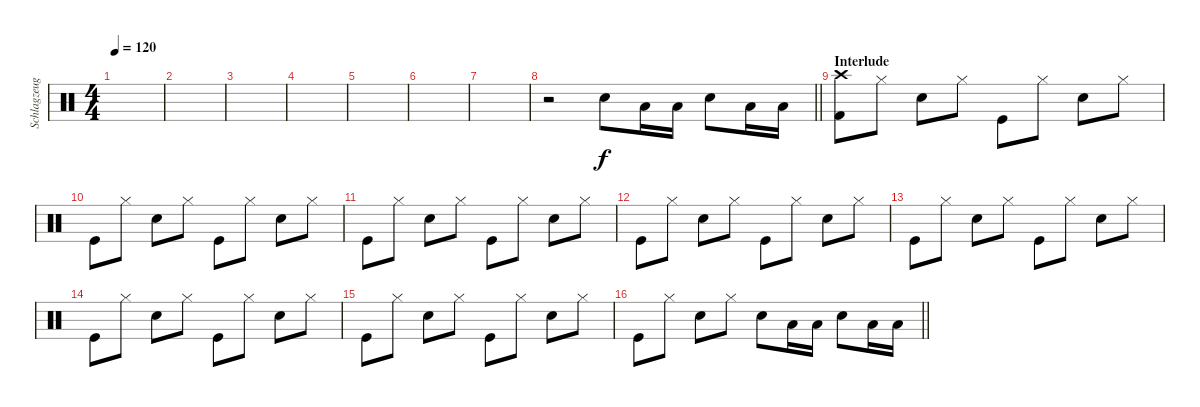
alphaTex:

\track ("Schlagzeug" "Schlagzeug") {instrument percussion}
\staff {score}
\articulation defaults
\ts (4 4)
\tempo 120
\clef neutral
\ks c
|
|
|
|
|
|
|
\barLineRight lightlight
r.2 "Snare (hit) 2".8 "Low Tom (hit)".16 "Low Tom (hit)".16 "Snare (hit) 2".8 "Low Tom (hit)".16 "Low Tom (hit)".16 |
\section ("" "Interlude")
("Crash high (hit)" "Kick (hit) 2").8 "Hi-Hat (closed)".8 "Snare (hit) 2".8 "Hi-Hat (closed)".8 "Kick (hit)".8 "Hi-Hat (closed)".8 "Electric Snare (hit)".8 "Hi-Hat (closed)".8 |
"Kick (hit)".8 "Hi-Hat (closed)".8 "Electric Snare (hit)".8 "Hi-Hat (closed)".8 "Kick (hit)".8 "Hi-Hat (closed)".8 "Electric Snare (hit)".8 "Hi-Hat (closed)".8 |
"Kick (hit)".8 "Hi-Hat (closed)".8 "Electric Snare (hit)".8 "Hi-Hat (closed)".8 "Kick (hit)".8 "Hi-Hat (closed)".8 "Electric Snare (hit)".8 "Hi-Hat (closed)".8 |
"Kick (hit)".8 "Hi-Hat (closed)".8 "Electric Snare (hit)".8 "Hi-Hat (closed)".8 "Kick (hit)".8 "Hi-Hat (closed)".8 "Electric Snare (hit)".8 "Hi-Hat (closed)".8 |
"Kick (hit)".8 "Hi-Hat (closed)".8 "Electric Snare (hit)".8 "Hi-Hat (closed)".8 "Kick (hit)".8 "Hi-Hat (closed)".8 "Electric Snare (hit)".8 "Hi-Hat (closed)".8 |
"Kick (hit)".8 "Hi-Hat (closed)".8 "Electric Snare (hit)".8 "Hi-Hat (closed)".8 "Kick (hit)".8 "Hi-Hat (closed)".8 "Electric Snare (hit)".8 "Hi-Hat (closed)".8 |
"Kick (hit)".8 "Hi-Hat (closed)".8 "Electric Snare (hit)".8 "Hi-Hat (closed)".8 "Kick (hit)".8 "Hi-Hat (closed)".8 "Electric Snare (hit)".8 "Hi-Hat (closed)".8 |
\barLineRight lightlight "Kick (hit)".8 "Hi-Hat (closed)".8 "Electric Snare (hit)".8 "Hi-Hat (closed)".8 "Snare (hit) 2".8 "Low Tom (hit)".16 "Low Tom (hit)".16 "Snare (hit) 2".8 "Low Tom (hit)".16 "Low Tom (hit)".16
